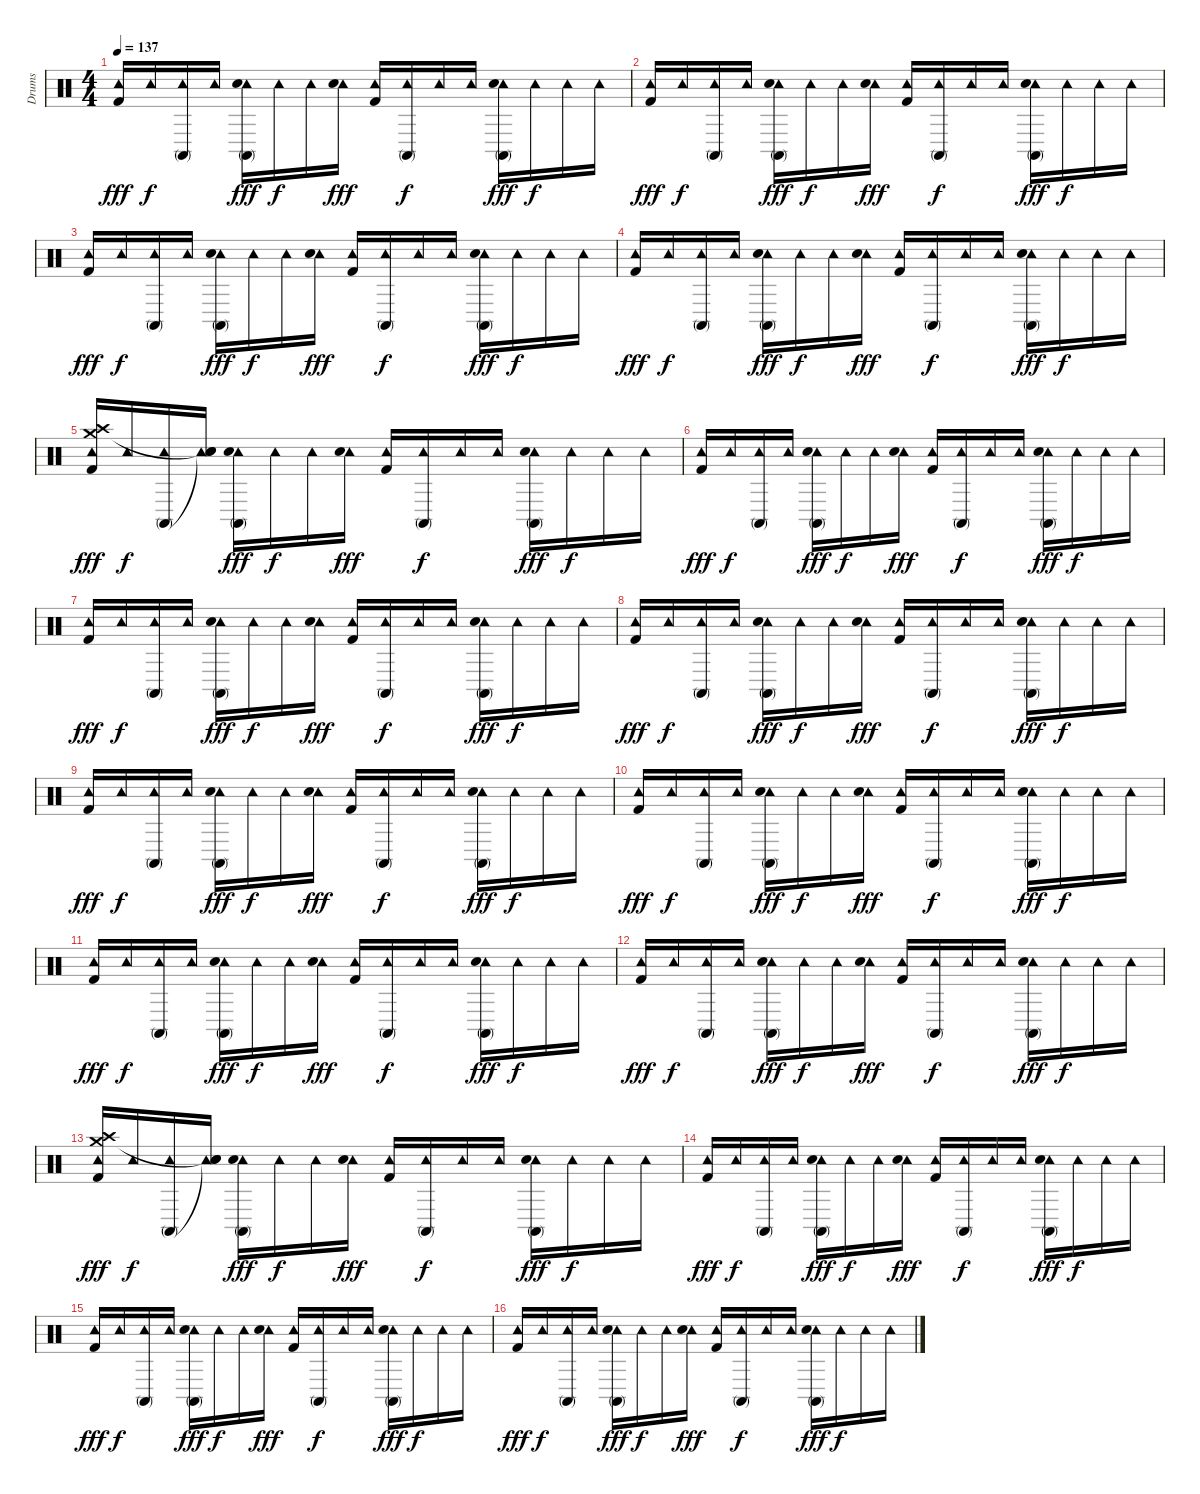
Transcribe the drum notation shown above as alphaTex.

\track ("Drums" "Drums") {instrument percussion}
\staff {score}
\articulation defaults
\ts (4 4)
\tempo 137
\clef neutral
\ks c
("Tambourine (hit)" "Kick (hit) 2").16{dy fff} "Tambourine (hit)".16{dy f} ("Tambourine (hit)" "Conga high (mute)").16 "Tambourine (hit)".16 ("Tambourine (hit)" "Conga high (mute)" "Electric Snare (hit)").16{dy fff} "Tambourine (hit)".16{dy f} "Tambourine (hit)".16 ("Tambourine (hit)" "Electric Snare (hit)").16{dy fff} ("Tambourine (hit)" "Kick (hit) 2").16 ("Tambourine (hit)" "Conga high (mute)").16{dy f} "Tambourine (hit)".16 "Tambourine (hit)".16 ("Tambourine (hit)" "Conga high (mute)" "Electric Snare (hit)").16{dy fff} "Tambourine (hit)".16{dy f} "Tambourine (hit)".16 "Tambourine (hit)".16 |
("Tambourine (hit)" "Kick (hit) 2").16{dy fff} "Tambourine (hit)".16{dy f} ("Tambourine (hit)" "Conga high (mute)").16 "Tambourine (hit)".16 ("Tambourine (hit)" "Conga high (mute)" "Electric Snare (hit)").16{dy fff} "Tambourine (hit)".16{dy f} "Tambourine (hit)".16 ("Tambourine (hit)" "Electric Snare (hit)").16{dy fff} ("Tambourine (hit)" "Kick (hit) 2").16 ("Tambourine (hit)" "Conga high (mute)").16{dy f} "Tambourine (hit)".16 "Tambourine (hit)".16 ("Tambourine (hit)" "Conga high (mute)" "Electric Snare (hit)").16{dy fff} "Tambourine (hit)".16{dy f} "Tambourine (hit)".16 "Tambourine (hit)".16 |
("Tambourine (hit)" "Kick (hit) 2").16{dy fff} "Tambourine (hit)".16{dy f} ("Tambourine (hit)" "Conga high (mute)").16 "Tambourine (hit)".16 ("Tambourine (hit)" "Conga high (mute)" "Electric Snare (hit)").16{dy fff} "Tambourine (hit)".16{dy f} "Tambourine (hit)".16 ("Tambourine (hit)" "Electric Snare (hit)").16{dy fff} ("Tambourine (hit)" "Kick (hit) 2").16 ("Tambourine (hit)" "Conga high (mute)").16{dy f} "Tambourine (hit)".16 "Tambourine (hit)".16 ("Tambourine (hit)" "Conga high (mute)" "Electric Snare (hit)").16{dy fff} "Tambourine (hit)".16{dy f} "Tambourine (hit)".16 "Tambourine (hit)".16 |
("Tambourine (hit)" "Kick (hit) 2").16{dy fff} "Tambourine (hit)".16{dy f} ("Tambourine (hit)" "Conga high (mute)").16 "Tambourine (hit)".16 ("Tambourine (hit)" "Conga high (mute)" "Electric Snare (hit)").16{dy fff} "Tambourine (hit)".16{dy f} "Tambourine (hit)".16 ("Tambourine (hit)" "Electric Snare (hit)").16{dy fff} ("Tambourine (hit)" "Kick (hit) 2").16 ("Tambourine (hit)" "Conga high (mute)").16{dy f} "Tambourine (hit)".16 "Tambourine (hit)".16 ("Tambourine (hit)" "Conga high (mute)" "Electric Snare (hit)").16{dy fff} "Tambourine (hit)".16{dy f} "Tambourine (hit)".16 "Tambourine (hit)".16 |
("Tambourine (hit)" "Crash high (hit)" "Crash medium (hit)" "Kick (hit) 2").16{dy fff} "Tambourine (hit)".16{dy f} ("Tambourine (hit)" "Conga high (mute)").16 ("Tambourine (hit)" "Snare (hit)"{t} "Snare (hit)"{t}).16 ("Tambourine (hit)" "Conga high (mute)" "Electric Snare (hit)").16{dy fff} "Tambourine (hit)".16{dy f} "Tambourine (hit)".16 ("Tambourine (hit)" "Electric Snare (hit)").16{dy fff} ("Tambourine (hit)" "Kick (hit) 2").16 ("Tambourine (hit)" "Conga high (mute)").16{dy f} "Tambourine (hit)".16 "Tambourine (hit)".16 ("Tambourine (hit)" "Conga high (mute)" "Electric Snare (hit)").16{dy fff} "Tambourine (hit)".16{dy f} "Tambourine (hit)".16 "Tambourine (hit)".16 |
("Tambourine (hit)" "Kick (hit) 2").16{dy fff} "Tambourine (hit)".16{dy f} ("Tambourine (hit)" "Conga high (mute)").16 "Tambourine (hit)".16 ("Tambourine (hit)" "Conga high (mute)" "Electric Snare (hit)").16{dy fff} "Tambourine (hit)".16{dy f} "Tambourine (hit)".16 ("Tambourine (hit)" "Electric Snare (hit)").16{dy fff} ("Tambourine (hit)" "Kick (hit) 2").16 ("Tambourine (hit)" "Conga high (mute)").16{dy f} "Tambourine (hit)".16 "Tambourine (hit)".16 ("Tambourine (hit)" "Conga high (mute)" "Electric Snare (hit)").16{dy fff} "Tambourine (hit)".16{dy f} "Tambourine (hit)".16 "Tambourine (hit)".16 |
("Tambourine (hit)" "Kick (hit) 2").16{dy fff} "Tambourine (hit)".16{dy f} ("Tambourine (hit)" "Conga high (mute)").16 "Tambourine (hit)".16 ("Tambourine (hit)" "Conga high (mute)" "Electric Snare (hit)").16{dy fff} "Tambourine (hit)".16{dy f} "Tambourine (hit)".16 ("Tambourine (hit)" "Electric Snare (hit)").16{dy fff} ("Tambourine (hit)" "Kick (hit) 2").16 ("Tambourine (hit)" "Conga high (mute)").16{dy f} "Tambourine (hit)".16 "Tambourine (hit)".16 ("Tambourine (hit)" "Conga high (mute)" "Electric Snare (hit)").16{dy fff} "Tambourine (hit)".16{dy f} "Tambourine (hit)".16 "Tambourine (hit)".16 |
("Tambourine (hit)" "Kick (hit) 2").16{dy fff} "Tambourine (hit)".16{dy f} ("Tambourine (hit)" "Conga high (mute)").16 "Tambourine (hit)".16 ("Tambourine (hit)" "Conga high (mute)" "Electric Snare (hit)").16{dy fff} "Tambourine (hit)".16{dy f} "Tambourine (hit)".16 ("Tambourine (hit)" "Electric Snare (hit)").16{dy fff} ("Tambourine (hit)" "Kick (hit) 2").16 ("Tambourine (hit)" "Conga high (mute)").16{dy f} "Tambourine (hit)".16 "Tambourine (hit)".16 ("Tambourine (hit)" "Conga high (mute)" "Electric Snare (hit)").16{dy fff} "Tambourine (hit)".16{dy f} "Tambourine (hit)".16 "Tambourine (hit)".16 |
("Tambourine (hit)" "Kick (hit) 2").16{dy fff} "Tambourine (hit)".16{dy f} ("Tambourine (hit)" "Conga high (mute)").16 "Tambourine (hit)".16 ("Tambourine (hit)" "Conga high (mute)" "Electric Snare (hit)").16{dy fff} "Tambourine (hit)".16{dy f} "Tambourine (hit)".16 ("Tambourine (hit)" "Electric Snare (hit)").16{dy fff} ("Tambourine (hit)" "Kick (hit) 2").16 ("Tambourine (hit)" "Conga high (mute)").16{dy f} "Tambourine (hit)".16 "Tambourine (hit)".16 ("Tambourine (hit)" "Conga high (mute)" "Electric Snare (hit)").16{dy fff} "Tambourine (hit)".16{dy f} "Tambourine (hit)".16 "Tambourine (hit)".16 |
("Tambourine (hit)" "Kick (hit) 2").16{dy fff} "Tambourine (hit)".16{dy f} ("Tambourine (hit)" "Conga high (mute)").16 "Tambourine (hit)".16 ("Tambourine (hit)" "Conga high (mute)" "Electric Snare (hit)").16{dy fff} "Tambourine (hit)".16{dy f} "Tambourine (hit)".16 ("Tambourine (hit)" "Electric Snare (hit)").16{dy fff} ("Tambourine (hit)" "Kick (hit) 2").16 ("Tambourine (hit)" "Conga high (mute)").16{dy f} "Tambourine (hit)".16 "Tambourine (hit)".16 ("Tambourine (hit)" "Conga high (mute)" "Electric Snare (hit)").16{dy fff} "Tambourine (hit)".16{dy f} "Tambourine (hit)".16 "Tambourine (hit)".16 |
("Tambourine (hit)" "Kick (hit) 2").16{dy fff} "Tambourine (hit)".16{dy f} ("Tambourine (hit)" "Conga high (mute)").16 "Tambourine (hit)".16 ("Tambourine (hit)" "Conga high (mute)" "Electric Snare (hit)").16{dy fff} "Tambourine (hit)".16{dy f} "Tambourine (hit)".16 ("Tambourine (hit)" "Electric Snare (hit)").16{dy fff} ("Tambourine (hit)" "Kick (hit) 2").16 ("Tambourine (hit)" "Conga high (mute)").16{dy f} "Tambourine (hit)".16 "Tambourine (hit)".16 ("Tambourine (hit)" "Conga high (mute)" "Electric Snare (hit)").16{dy fff} "Tambourine (hit)".16{dy f} "Tambourine (hit)".16 "Tambourine (hit)".16 |
("Tambourine (hit)" "Kick (hit) 2").16{dy fff} "Tambourine (hit)".16{dy f} ("Tambourine (hit)" "Conga high (mute)").16 "Tambourine (hit)".16 ("Tambourine (hit)" "Conga high (mute)" "Electric Snare (hit)").16{dy fff} "Tambourine (hit)".16{dy f} "Tambourine (hit)".16 ("Tambourine (hit)" "Electric Snare (hit)").16{dy fff} ("Tambourine (hit)" "Kick (hit) 2").16 ("Tambourine (hit)" "Conga high (mute)").16{dy f} "Tambourine (hit)".16 "Tambourine (hit)".16 ("Tambourine (hit)" "Conga high (mute)" "Electric Snare (hit)").16{dy fff} "Tambourine (hit)".16{dy f} "Tambourine (hit)".16 "Tambourine (hit)".16 |
("Tambourine (hit)" "Crash high (hit)" "Crash medium (hit)" "Kick (hit) 2").16{dy fff} "Tambourine (hit)".16{dy f} ("Tambourine (hit)" "Conga high (mute)").16 ("Tambourine (hit)" "Snare (hit)"{t} "Snare (hit)"{t}).16 ("Tambourine (hit)" "Conga high (mute)" "Electric Snare (hit)").16{dy fff} "Tambourine (hit)".16{dy f} "Tambourine (hit)".16 ("Tambourine (hit)" "Electric Snare (hit)").16{dy fff} ("Tambourine (hit)" "Kick (hit) 2").16 ("Tambourine (hit)" "Conga high (mute)").16{dy f} "Tambourine (hit)".16 "Tambourine (hit)".16 ("Tambourine (hit)" "Conga high (mute)" "Electric Snare (hit)").16{dy fff} "Tambourine (hit)".16{dy f} "Tambourine (hit)".16 "Tambourine (hit)".16 |
("Tambourine (hit)" "Kick (hit) 2").16{dy fff} "Tambourine (hit)".16{dy f} ("Tambourine (hit)" "Conga high (mute)").16 "Tambourine (hit)".16 ("Tambourine (hit)" "Conga high (mute)" "Electric Snare (hit)").16{dy fff} "Tambourine (hit)".16{dy f} "Tambourine (hit)".16 ("Tambourine (hit)" "Electric Snare (hit)").16{dy fff} ("Tambourine (hit)" "Kick (hit) 2").16 ("Tambourine (hit)" "Conga high (mute)").16{dy f} "Tambourine (hit)".16 "Tambourine (hit)".16 ("Tambourine (hit)" "Conga high (mute)" "Electric Snare (hit)").16{dy fff} "Tambourine (hit)".16{dy f} "Tambourine (hit)".16 "Tambourine (hit)".16 |
("Tambourine (hit)" "Kick (hit) 2").16{dy fff} "Tambourine (hit)".16{dy f} ("Tambourine (hit)" "Conga high (mute)").16 "Tambourine (hit)".16 ("Tambourine (hit)" "Conga high (mute)" "Electric Snare (hit)").16{dy fff} "Tambourine (hit)".16{dy f} "Tambourine (hit)".16 ("Tambourine (hit)" "Electric Snare (hit)").16{dy fff} ("Tambourine (hit)" "Kick (hit) 2").16 ("Tambourine (hit)" "Conga high (mute)").16{dy f} "Tambourine (hit)".16 "Tambourine (hit)".16 ("Tambourine (hit)" "Conga high (mute)" "Electric Snare (hit)").16{dy fff} "Tambourine (hit)".16{dy f} "Tambourine (hit)".16 "Tambourine (hit)".16 |
("Tambourine (hit)" "Kick (hit) 2").16{dy fff} "Tambourine (hit)".16{dy f} ("Tambourine (hit)" "Conga high (mute)").16 "Tambourine (hit)".16 ("Tambourine (hit)" "Conga high (mute)" "Electric Snare (hit)").16{dy fff} "Tambourine (hit)".16{dy f} "Tambourine (hit)".16 ("Tambourine (hit)" "Electric Snare (hit)").16{dy fff} ("Tambourine (hit)" "Kick (hit) 2").16 ("Tambourine (hit)" "Conga high (mute)").16{dy f} "Tambourine (hit)".16 "Tambourine (hit)".16 ("Tambourine (hit)" "Conga high (mute)" "Electric Snare (hit)").16{dy fff} "Tambourine (hit)".16{dy f} "Tambourine (hit)".16 "Tambourine (hit)".16
